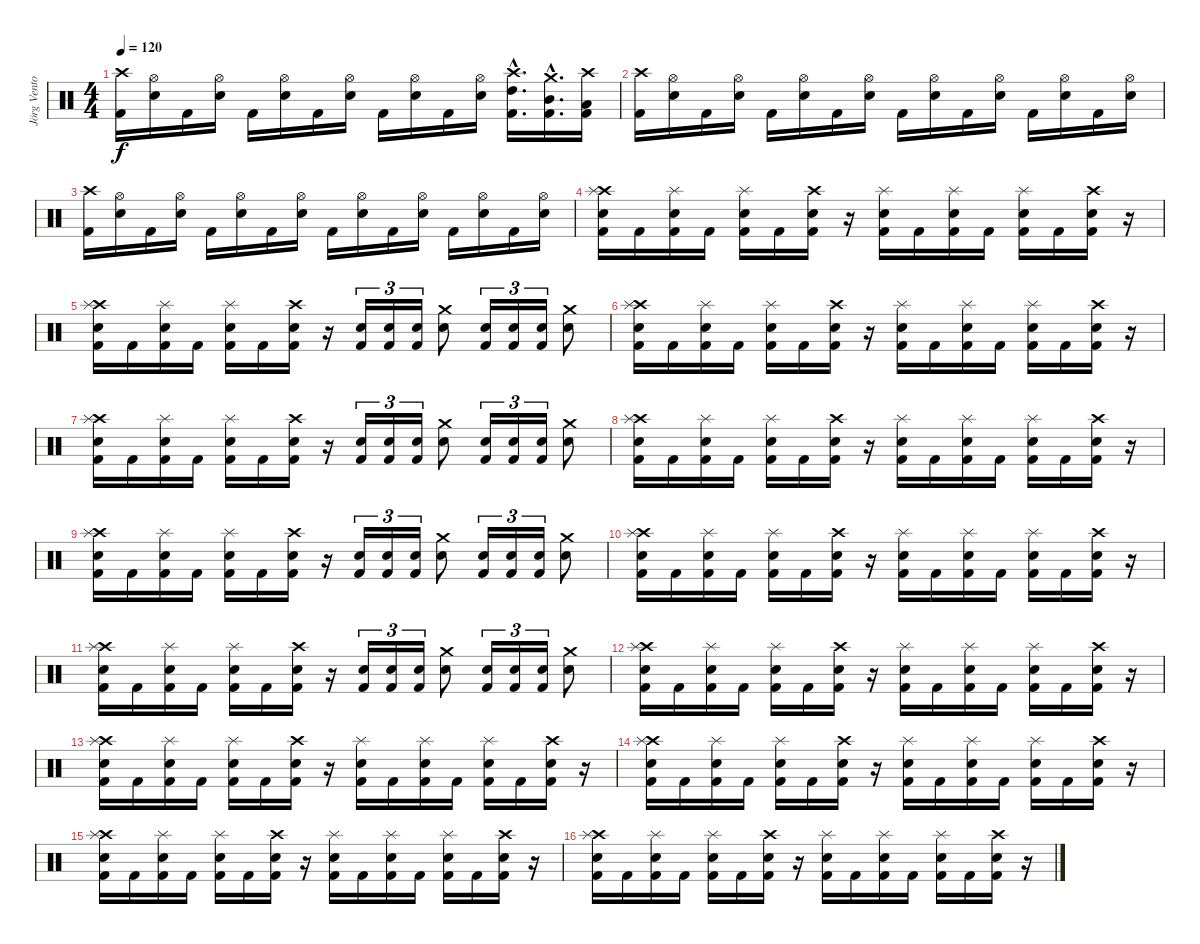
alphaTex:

\track ("Jörg Ventor" "Jörg Vento") {instrument percussion}
\staff {score}
\articulation defaults
\ts (4 4)
\tempo 120
\clef neutral
\ks c
("Crash high (hit)" "Kick (hit) 2").16{dy f} ("Hi-Hat (open)" "Snare (hit) 2").16 "Kick (hit) 2".16 ("Hi-Hat (open)" "Snare (hit) 2").16 "Kick (hit) 2".16 ("Hi-Hat (open)" "Snare (hit) 2").16 "Kick (hit) 2".16 ("Hi-Hat (open)" "Snare (hit) 2").16 "Kick (hit) 2".16 ("Hi-Hat (open)" "Snare (hit) 2").16 "Kick (hit) 2".16 ("Hi-Hat (open)" "Snare (hit) 2").16 ("High Tom (hit)"{hac} "Kick (hit) 2"{hac} "Crash high (hit)"{hac}).16{d} ("Mid Tom (hit)"{hac} "Kick (hit) 2"{hac} "Crash medium (hit)"{hac}).16{d} ("Low Tom (hit)" "Kick (hit) 2" "Crash high (hit)").16 |
("Crash high (hit)" "Kick (hit) 2").16 ("Hi-Hat (open)" "Snare (hit) 2").16 "Kick (hit) 2".16 ("Hi-Hat (open)" "Snare (hit) 2").16 "Kick (hit) 2".16 ("Hi-Hat (open)" "Snare (hit) 2").16 "Kick (hit) 2".16 ("Hi-Hat (open)" "Snare (hit) 2").16 "Kick (hit) 2".16 ("Hi-Hat (open)" "Snare (hit) 2").16 "Kick (hit) 2".16 ("Hi-Hat (open)" "Snare (hit) 2").16 "Kick (hit) 2".16 ("Hi-Hat (open)" "Snare (hit) 2").16 "Kick (hit) 2".16 ("Hi-Hat (open)" "Snare (hit) 2").16 |
("Crash high (hit)" "Kick (hit) 2").16 ("Hi-Hat (open)" "Snare (hit) 2").16 "Kick (hit) 2".16 ("Hi-Hat (open)" "Snare (hit) 2").16 "Kick (hit) 2".16 ("Hi-Hat (open)" "Snare (hit) 2").16 "Kick (hit) 2".16 ("Hi-Hat (open)" "Snare (hit) 2").16 "Kick (hit) 2".16 ("Hi-Hat (open)" "Snare (hit) 2").16 "Kick (hit) 2".16 ("Hi-Hat (open)" "Snare (hit) 2").16 "Kick (hit) 2".16 ("Hi-Hat (open)" "Snare (hit) 2").16 "Kick (hit) 2".16 ("Hi-Hat (open)" "Snare (hit) 2").16 |
("Crash high (hit)" "Kick (hit) 2" "Snare (hit) 2" "Splash (hit)").16 "Kick (hit) 2".16 ("Kick (hit) 2" "Snare (hit) 2" "Splash (hit)").16 "Kick (hit) 2".16 ("Kick (hit) 2" "Snare (hit) 2" "Splash (hit)").16 "Kick (hit) 2".16 ("Kick (hit) 2" "Snare (hit) 2" "Crash high (hit)").16 r.16 ("Kick (hit) 2" "Snare (hit) 2" "Splash (hit)").16 "Kick (hit) 2".16 ("Kick (hit) 2" "Snare (hit) 2" "Splash (hit)").16 "Kick (hit) 2".16 ("Kick (hit) 2" "Snare (hit) 2" "Splash (hit)").16 "Kick (hit) 2".16 ("Kick (hit) 2" "Snare (hit) 2" "Crash high (hit)").16 r.16 |
("Crash high (hit)" "Kick (hit) 2" "Snare (hit) 2" "Splash (hit)").16 "Kick (hit) 2".16 ("Kick (hit) 2" "Snare (hit) 2" "Splash (hit)").16 "Kick (hit) 2".16 ("Kick (hit) 2" "Snare (hit) 2" "Splash (hit)").16 "Kick (hit) 2".16 ("Kick (hit) 2" "Snare (hit) 2" "Crash high (hit)").16 r.16 ("Snare (hit) 2" "Kick (hit) 2").16{tu (3 2)} ("Snare (hit) 2" "Kick (hit) 2").16{tu (3 2)} ("Snare (hit) 2" "Kick (hit) 2").16{tu (3 2)} ("Snare (hit) 2" "Crash medium (hit)").8 ("Snare (hit) 2" "Kick (hit) 2").16{tu (3 2)} ("Snare (hit) 2" "Kick (hit) 2").16{tu (3 2)} ("Snare (hit) 2" "Kick (hit) 2").16{tu (3 2)} ("Electric Snare (hit)" "Crash medium (hit)").8 |
("Crash high (hit)" "Kick (hit) 2" "Snare (hit) 2" "Splash (hit)").16 "Kick (hit) 2".16 ("Kick (hit) 2" "Snare (hit) 2" "Splash (hit)").16 "Kick (hit) 2".16 ("Kick (hit) 2" "Snare (hit) 2" "Splash (hit)").16 "Kick (hit) 2".16 ("Kick (hit) 2" "Snare (hit) 2" "Crash high (hit)").16 r.16 ("Kick (hit) 2" "Snare (hit) 2" "Splash (hit)").16 "Kick (hit) 2".16 ("Kick (hit) 2" "Snare (hit) 2" "Splash (hit)").16 "Kick (hit) 2".16 ("Kick (hit) 2" "Snare (hit) 2" "Splash (hit)").16 "Kick (hit) 2".16 ("Kick (hit) 2" "Snare (hit) 2" "Crash high (hit)").16 r.16 |
("Crash high (hit)" "Kick (hit) 2" "Snare (hit) 2" "Splash (hit)").16 "Kick (hit) 2".16 ("Kick (hit) 2" "Snare (hit) 2" "Splash (hit)").16 "Kick (hit) 2".16 ("Kick (hit) 2" "Snare (hit) 2" "Splash (hit)").16 "Kick (hit) 2".16 ("Kick (hit) 2" "Snare (hit) 2" "Crash high (hit)").16 r.16 ("Snare (hit) 2" "Kick (hit) 2").16{tu (3 2)} ("Snare (hit) 2" "Kick (hit) 2").16{tu (3 2)} ("Snare (hit) 2" "Kick (hit) 2").16{tu (3 2)} ("Snare (hit) 2" "Crash medium (hit)").8 ("Snare (hit) 2" "Kick (hit) 2").16{tu (3 2)} ("Snare (hit) 2" "Kick (hit) 2").16{tu (3 2)} ("Snare (hit) 2" "Kick (hit) 2").16{tu (3 2)} ("Electric Snare (hit)" "Crash medium (hit)").8 |
("Crash high (hit)" "Kick (hit) 2" "Snare (hit) 2" "Splash (hit)").16 "Kick (hit) 2".16 ("Kick (hit) 2" "Snare (hit) 2" "Splash (hit)").16 "Kick (hit) 2".16 ("Kick (hit) 2" "Snare (hit) 2" "Splash (hit)").16 "Kick (hit) 2".16 ("Kick (hit) 2" "Snare (hit) 2" "Crash high (hit)").16 r.16 ("Kick (hit) 2" "Snare (hit) 2" "Splash (hit)").16 "Kick (hit) 2".16 ("Kick (hit) 2" "Snare (hit) 2" "Splash (hit)").16 "Kick (hit) 2".16 ("Kick (hit) 2" "Snare (hit) 2" "Splash (hit)").16 "Kick (hit) 2".16 ("Kick (hit) 2" "Snare (hit) 2" "Crash high (hit)").16 r.16 |
("Crash high (hit)" "Kick (hit) 2" "Snare (hit) 2" "Splash (hit)").16 "Kick (hit) 2".16 ("Kick (hit) 2" "Snare (hit) 2" "Splash (hit)").16 "Kick (hit) 2".16 ("Kick (hit) 2" "Snare (hit) 2" "Splash (hit)").16 "Kick (hit) 2".16 ("Kick (hit) 2" "Snare (hit) 2" "Crash high (hit)").16 r.16 ("Snare (hit) 2" "Kick (hit) 2").16{tu (3 2)} ("Snare (hit) 2" "Kick (hit) 2").16{tu (3 2)} ("Snare (hit) 2" "Kick (hit) 2").16{tu (3 2)} ("Snare (hit) 2" "Crash medium (hit)").8 ("Snare (hit) 2" "Kick (hit) 2").16{tu (3 2)} ("Snare (hit) 2" "Kick (hit) 2").16{tu (3 2)} ("Snare (hit) 2" "Kick (hit) 2").16{tu (3 2)} ("Electric Snare (hit)" "Crash medium (hit)").8 |
("Crash high (hit)" "Kick (hit) 2" "Snare (hit) 2" "Splash (hit)").16 "Kick (hit) 2".16 ("Kick (hit) 2" "Snare (hit) 2" "Splash (hit)").16 "Kick (hit) 2".16 ("Kick (hit) 2" "Snare (hit) 2" "Splash (hit)").16 "Kick (hit) 2".16 ("Kick (hit) 2" "Snare (hit) 2" "Crash high (hit)").16 r.16 ("Kick (hit) 2" "Snare (hit) 2" "Splash (hit)").16 "Kick (hit) 2".16 ("Kick (hit) 2" "Snare (hit) 2" "Splash (hit)").16 "Kick (hit) 2".16 ("Kick (hit) 2" "Snare (hit) 2" "Splash (hit)").16 "Kick (hit) 2".16 ("Kick (hit) 2" "Snare (hit) 2" "Crash high (hit)").16 r.16 |
("Crash high (hit)" "Kick (hit) 2" "Snare (hit) 2" "Splash (hit)").16 "Kick (hit) 2".16 ("Kick (hit) 2" "Snare (hit) 2" "Splash (hit)").16 "Kick (hit) 2".16 ("Kick (hit) 2" "Snare (hit) 2" "Splash (hit)").16 "Kick (hit) 2".16 ("Kick (hit) 2" "Snare (hit) 2" "Crash high (hit)").16 r.16 ("Snare (hit) 2" "Kick (hit) 2").16{tu (3 2)} ("Snare (hit) 2" "Kick (hit) 2").16{tu (3 2)} ("Snare (hit) 2" "Kick (hit) 2").16{tu (3 2)} ("Snare (hit) 2" "Crash medium (hit)").8 ("Snare (hit) 2" "Kick (hit) 2").16{tu (3 2)} ("Snare (hit) 2" "Kick (hit) 2").16{tu (3 2)} ("Snare (hit) 2" "Kick (hit) 2").16{tu (3 2)} ("Electric Snare (hit)" "Crash medium (hit)").8 |
("Crash high (hit)" "Kick (hit) 2" "Snare (hit) 2" "Splash (hit)").16 "Kick (hit) 2".16 ("Kick (hit) 2" "Snare (hit) 2" "Splash (hit)").16 "Kick (hit) 2".16 ("Kick (hit) 2" "Snare (hit) 2" "Splash (hit)").16 "Kick (hit) 2".16 ("Kick (hit) 2" "Snare (hit) 2" "Crash high (hit)").16 r.16 ("Kick (hit) 2" "Snare (hit) 2" "Splash (hit)").16 "Kick (hit) 2".16 ("Kick (hit) 2" "Snare (hit) 2" "Splash (hit)").16 "Kick (hit) 2".16 ("Kick (hit) 2" "Snare (hit) 2" "Splash (hit)").16 "Kick (hit) 2".16 ("Kick (hit) 2" "Snare (hit) 2" "Crash high (hit)").16 r.16 |
("Crash high (hit)" "Kick (hit) 2" "Snare (hit) 2" "Splash (hit)").16 "Kick (hit) 2".16 ("Kick (hit) 2" "Snare (hit) 2" "Splash (hit)").16 "Kick (hit) 2".16 ("Kick (hit) 2" "Snare (hit) 2" "Splash (hit)").16 "Kick (hit) 2".16 ("Kick (hit) 2" "Snare (hit) 2" "Crash high (hit)").16 r.16 ("Kick (hit) 2" "Snare (hit) 2" "Splash (hit)").16 "Kick (hit) 2".16 ("Kick (hit) 2" "Snare (hit) 2" "Splash (hit)").16 "Kick (hit) 2".16 ("Kick (hit) 2" "Snare (hit) 2" "Splash (hit)").16 "Kick (hit) 2".16 ("Kick (hit) 2" "Snare (hit) 2" "Crash high (hit)").16 r.16 |
("Crash high (hit)" "Kick (hit) 2" "Snare (hit) 2" "Splash (hit)").16 "Kick (hit) 2".16 ("Kick (hit) 2" "Snare (hit) 2" "Splash (hit)").16 "Kick (hit) 2".16 ("Kick (hit) 2" "Snare (hit) 2" "Splash (hit)").16 "Kick (hit) 2".16 ("Kick (hit) 2" "Snare (hit) 2" "Crash high (hit)").16 r.16 ("Kick (hit) 2" "Snare (hit) 2" "Splash (hit)").16 "Kick (hit) 2".16 ("Kick (hit) 2" "Snare (hit) 2" "Splash (hit)").16 "Kick (hit) 2".16 ("Kick (hit) 2" "Snare (hit) 2" "Splash (hit)").16 "Kick (hit) 2".16 ("Kick (hit) 2" "Snare (hit) 2" "Crash high (hit)").16 r.16 |
("Crash high (hit)" "Kick (hit) 2" "Snare (hit) 2" "Splash (hit)").16 "Kick (hit) 2".16 ("Kick (hit) 2" "Snare (hit) 2" "Splash (hit)").16 "Kick (hit) 2".16 ("Kick (hit) 2" "Snare (hit) 2" "Splash (hit)").16 "Kick (hit) 2".16 ("Kick (hit) 2" "Snare (hit) 2" "Crash high (hit)").16 r.16 ("Kick (hit) 2" "Snare (hit) 2" "Splash (hit)").16 "Kick (hit) 2".16 ("Kick (hit) 2" "Snare (hit) 2" "Splash (hit)").16 "Kick (hit) 2".16 ("Kick (hit) 2" "Snare (hit) 2" "Splash (hit)").16 "Kick (hit) 2".16 ("Kick (hit) 2" "Snare (hit) 2" "Crash high (hit)").16 r.16 |
("Crash high (hit)" "Kick (hit) 2" "Snare (hit) 2" "Splash (hit)").16 "Kick (hit) 2".16 ("Kick (hit) 2" "Snare (hit) 2" "Splash (hit)").16 "Kick (hit) 2".16 ("Kick (hit) 2" "Snare (hit) 2" "Splash (hit)").16 "Kick (hit) 2".16 ("Kick (hit) 2" "Snare (hit) 2" "Crash high (hit)").16 r.16 ("Kick (hit) 2" "Snare (hit) 2" "Splash (hit)").16 "Kick (hit) 2".16 ("Kick (hit) 2" "Snare (hit) 2" "Splash (hit)").16 "Kick (hit) 2".16 ("Kick (hit) 2" "Snare (hit) 2" "Splash (hit)").16 "Kick (hit) 2".16 ("Kick (hit) 2" "Snare (hit) 2" "Crash high (hit)").16 r.16
